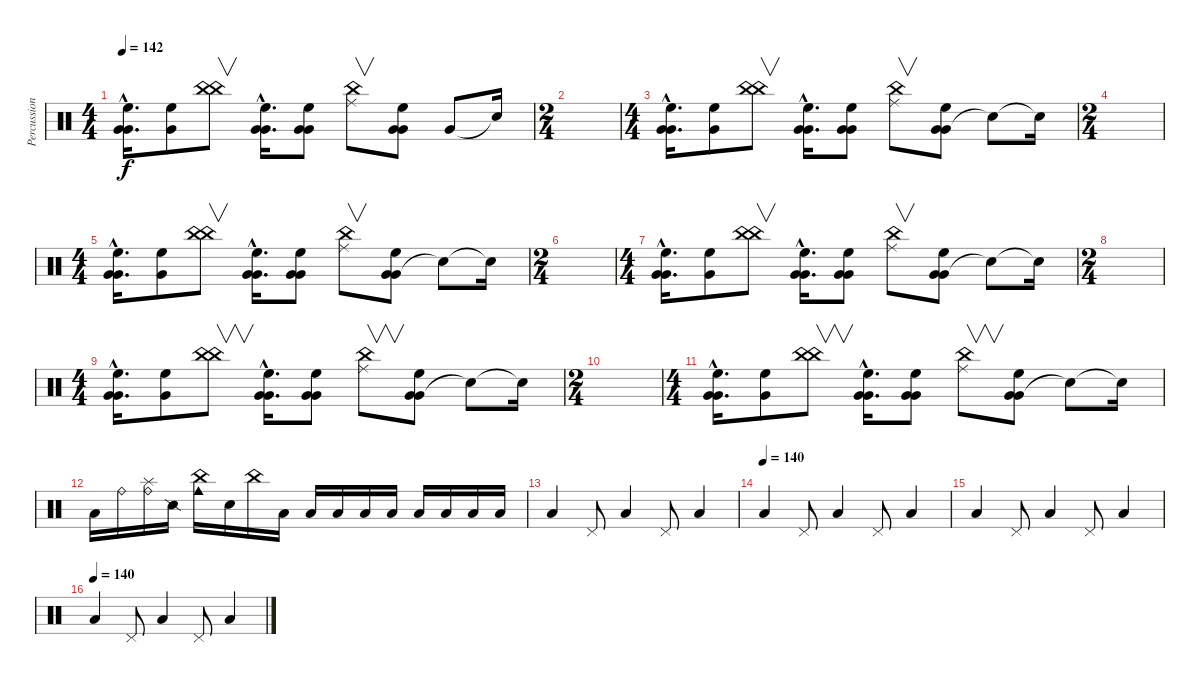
\track ("Percussion" "Percussion") {instrument percussion}
\staff {score}
\articulation defaults
\ts (4 4)
\tempo 142
\clef neutral
\ks c
("Very Low Tom (hit)" "Very Low Tom (hit)"{hac} "High Floor Tom (hit)"{hac}).16{d dy f} ("Very Low Tom (hit)" "High Floor Tom (hit)").8 ("China (hit)" "China (hit)").8{v} ("Very Low Tom (hit)" "Very Low Tom (hit)"{hac} "High Floor Tom (hit)"{hac}).16{d} ("Very Low Tom (hit)" "Very Low Tom (hit)" "High Floor Tom (hit)").8 ("Ride (middle)" "China (hit)").8{v} ("Very Low Tom (hit)" "Very Low Tom (hit)" "High Floor Tom (hit)").8 "Very Low Tom (hit)".8 "Snare (hit)"{t}.16 |
\ts (2 4)
|
\ts (4 4)
("Very Low Tom (hit)" "Very Low Tom (hit)"{hac} "High Floor Tom (hit)"{hac}).16{d} ("Very Low Tom (hit)" "High Floor Tom (hit)").8 ("China (hit)" "China (hit)").8{v} ("Very Low Tom (hit)" "Very Low Tom (hit)"{hac} "High Floor Tom (hit)"{hac}).16{d} ("Very Low Tom (hit)" "Very Low Tom (hit)" "High Floor Tom (hit)").8 ("Ride (middle)" "China (hit)").8{v} ("Very Low Tom (hit)" "Very Low Tom (hit)" "High Floor Tom (hit)").8 "Snare (hit)"{t}.8 "Snare (hit)"{t}.16 |
\ts (2 4)
|
\ts (4 4)
("Very Low Tom (hit)" "Very Low Tom (hit)"{hac} "High Floor Tom (hit)"{hac}).16{d} ("Very Low Tom (hit)" "High Floor Tom (hit)").8 ("China (hit)" "China (hit)").8{v} ("Very Low Tom (hit)" "Very Low Tom (hit)"{hac} "High Floor Tom (hit)"{hac}).16{d} ("Very Low Tom (hit)" "Very Low Tom (hit)" "High Floor Tom (hit)").8 ("Ride (middle)" "China (hit)").8{v} ("Very Low Tom (hit)" "Very Low Tom (hit)" "High Floor Tom (hit)").8 "Snare (hit)"{t}.8 "Snare (hit)"{t}.16 |
\ts (2 4)
|
\ts (4 4)
("Very Low Tom (hit)" "Very Low Tom (hit)"{hac} "High Floor Tom (hit)"{hac}).16{d} ("Very Low Tom (hit)" "High Floor Tom (hit)").8 ("China (hit)" "China (hit)").8{v} ("Very Low Tom (hit)" "Very Low Tom (hit)"{hac} "High Floor Tom (hit)"{hac}).16{d} ("Very Low Tom (hit)" "Very Low Tom (hit)" "High Floor Tom (hit)").8 ("Ride (middle)" "China (hit)").8{v} ("Very Low Tom (hit)" "Very Low Tom (hit)" "High Floor Tom (hit)").8 "Snare (hit)"{t}.8 "Snare (hit)"{t}.16 |
\ts (2 4)
|
\ts (4 4)
("Very Low Tom (hit)" "Very Low Tom (hit)"{hac} "High Floor Tom (hit)"{hac}).16{d} ("Very Low Tom (hit)" "High Floor Tom (hit)").8 ("China (hit)" "China (hit)").8{v} ("Very Low Tom (hit)" "Very Low Tom (hit)"{hac} "High Floor Tom (hit)"{hac}).16{d} ("Very Low Tom (hit)" "Very Low Tom (hit)" "High Floor Tom (hit)").8 ("Ride (middle)" "China (hit)").8{v} ("Very Low Tom (hit)" "Very Low Tom (hit)" "High Floor Tom (hit)").8 "Snare (hit)"{t}.8 "Snare (hit)"{t}.16 |
\ts (2 4)
|
\ts (4 4)
("Very Low Tom (hit)" "Very Low Tom (hit)"{hac} "High Floor Tom (hit)"{hac}).16{d} ("Very Low Tom (hit)" "High Floor Tom (hit)").8 ("China (hit)" "China (hit)").8{v} ("Very Low Tom (hit)" "Very Low Tom (hit)"{hac} "High Floor Tom (hit)"{hac}).16{d} ("Very Low Tom (hit)" "Very Low Tom (hit)" "High Floor Tom (hit)").8 ("Ride (middle)" "China (hit)").8{v} ("Very Low Tom (hit)" "Very Low Tom (hit)" "High Floor Tom (hit)").8 "Snare (hit)"{t}.8 "Snare (hit)"{t}.16 |
"Low Tom (hit)".16 "Ride (bell)".16 ("Ride (bell)" "Splash (hit)").16 "Snare (side stick) 2".16 ("China (hit)" "Cowbell medium (hit)").16 "Snare (hit)".16 "China (hit)".16 "Low Tom (hit)".16 "Low Tom (hit)".16 "Low Tom (hit)".16 "Low Tom (hit)".16 "Low Tom (hit)".16 "Low Tom (hit)".16 "Low Tom (hit)".16 "Low Tom (hit)".16 "Low Tom (hit)".16 |
"Low Tom (hit)".4 "Pedal Hi-Hat (hit)".8 "Low Tom (hit)".4 "Pedal Hi-Hat (hit)".8 "Low Tom (hit)".4 |
\tempo 160
\tempo (140)
"Low Tom (hit)".4 "Pedal Hi-Hat (hit)".8 "Low Tom (hit)".4 "Pedal Hi-Hat (hit)".8 "Low Tom (hit)".4 |
"Low Tom (hit)".4 "Pedal Hi-Hat (hit)".8 "Low Tom (hit)".4 "Pedal Hi-Hat (hit)".8 "Low Tom (hit)".4 |
\tempo 160
\tempo (140)
"Low Tom (hit)".4 "Pedal Hi-Hat (hit)".8 "Low Tom (hit)".4 "Pedal Hi-Hat (hit)".8 "Low Tom (hit)".4
